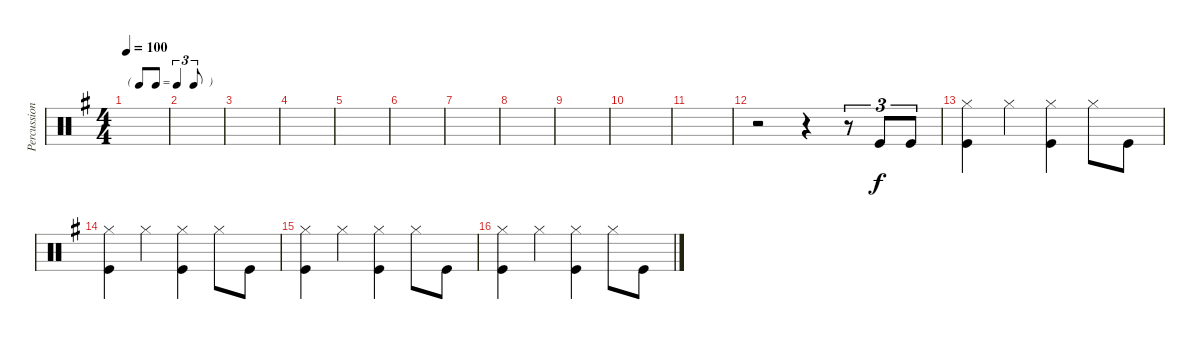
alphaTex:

\track ("Percussion" "Percussion") {instrument percussion}
\staff {score}
\articulation defaults
\ts (4 4)
\tf triplet8th
\tempo 100
\clef neutral
\ks g
|
|
|
|
|
|
|
|
|
|
|
r.2 r.4 r.8{tu (3 2)} "Kick (hit)".8{tu (3 2)} "Kick (hit)".8{tu (3 2)} |
("Hi-Hat (closed)" "Kick (hit)").4 "Hi-Hat (closed)".4 ("Hi-Hat (closed)" "Kick (hit)").4 "Hi-Hat (closed)".8 "Kick (hit)".8 |
("Hi-Hat (closed)" "Kick (hit)").4 "Hi-Hat (closed)".4 ("Hi-Hat (closed)" "Kick (hit)").4 "Hi-Hat (closed)".8 "Kick (hit)".8 |
("Hi-Hat (closed)" "Kick (hit)").4 "Hi-Hat (closed)".4 ("Hi-Hat (closed)" "Kick (hit)").4 "Hi-Hat (closed)".8 "Kick (hit)".8 |
("Hi-Hat (closed)" "Kick (hit)").4 "Hi-Hat (closed)".4 ("Hi-Hat (closed)" "Kick (hit)").4 "Hi-Hat (closed)".8 "Kick (hit)".8
